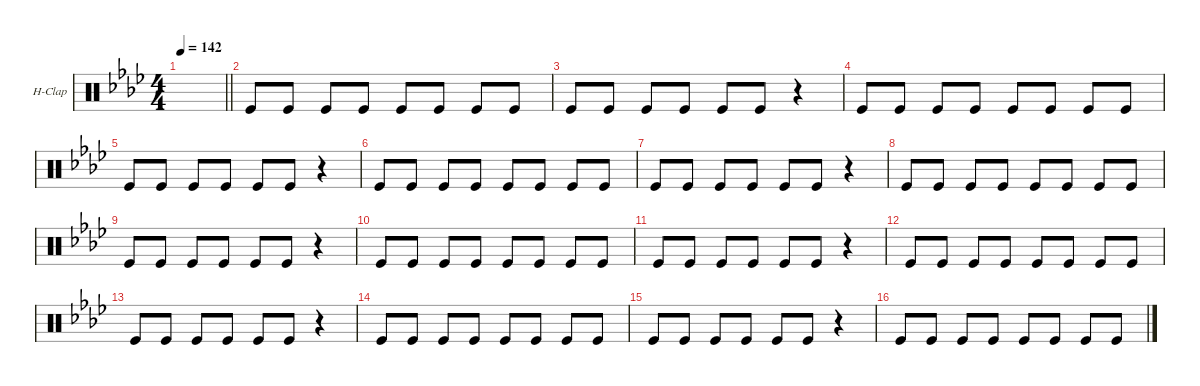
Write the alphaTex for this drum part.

\defaultSystemsLayout 4
\hideDynamics
\bracketExtendMode groupsimilarinstruments
\firstSystemTrackNameOrientation horizontal
\otherSystemsTrackNameOrientation horizontal
\track ("Hand Clap" "H-Clap") {multiBarRest instrument percussion}
\staff {score}
\articulation defaults
\ts (4 4)
\tempo 142
\clef neutral
\barLineRight lightlight
\ks ab
|
"Kick (hit)".8 "Kick (hit)".8 "Kick (hit)".8 "Kick (hit)".8 "Kick (hit)".8 "Kick (hit)".8 "Kick (hit)".8 "Kick (hit)".8 |
"Kick (hit)".8 "Kick (hit)".8 "Kick (hit)".8 "Kick (hit)".8 "Kick (hit)".8 "Kick (hit)".8 r.4 |
"Kick (hit)".8 "Kick (hit)".8 "Kick (hit)".8 "Kick (hit)".8 "Kick (hit)".8 "Kick (hit)".8 "Kick (hit)".8 "Kick (hit)".8 |
"Kick (hit)".8 "Kick (hit)".8 "Kick (hit)".8 "Kick (hit)".8 "Kick (hit)".8 "Kick (hit)".8 r.4 |
"Kick (hit)".8 "Kick (hit)".8 "Kick (hit)".8 "Kick (hit)".8 "Kick (hit)".8 "Kick (hit)".8 "Kick (hit)".8 "Kick (hit)".8 |
"Kick (hit)".8 "Kick (hit)".8 "Kick (hit)".8 "Kick (hit)".8 "Kick (hit)".8 "Kick (hit)".8 r.4 |
"Kick (hit)".8 "Kick (hit)".8 "Kick (hit)".8 "Kick (hit)".8 "Kick (hit)".8 "Kick (hit)".8 "Kick (hit)".8 "Kick (hit)".8 |
"Kick (hit)".8 "Kick (hit)".8 "Kick (hit)".8 "Kick (hit)".8 "Kick (hit)".8 "Kick (hit)".8 r.4 |
"Kick (hit)".8 "Kick (hit)".8 "Kick (hit)".8 "Kick (hit)".8 "Kick (hit)".8 "Kick (hit)".8 "Kick (hit)".8 "Kick (hit)".8 |
"Kick (hit)".8 "Kick (hit)".8 "Kick (hit)".8 "Kick (hit)".8 "Kick (hit)".8 "Kick (hit)".8 r.4 |
"Kick (hit)".8 "Kick (hit)".8 "Kick (hit)".8 "Kick (hit)".8 "Kick (hit)".8 "Kick (hit)".8 "Kick (hit)".8 "Kick (hit)".8 |
"Kick (hit)".8 "Kick (hit)".8 "Kick (hit)".8 "Kick (hit)".8 "Kick (hit)".8 "Kick (hit)".8 r.4 |
"Kick (hit)".8 "Kick (hit)".8 "Kick (hit)".8 "Kick (hit)".8 "Kick (hit)".8 "Kick (hit)".8 "Kick (hit)".8 "Kick (hit)".8 |
"Kick (hit)".8 "Kick (hit)".8 "Kick (hit)".8 "Kick (hit)".8 "Kick (hit)".8 "Kick (hit)".8 r.4 |
"Kick (hit)".8 "Kick (hit)".8 "Kick (hit)".8 "Kick (hit)".8 "Kick (hit)".8 "Kick (hit)".8 "Kick (hit)".8 "Kick (hit)".8
